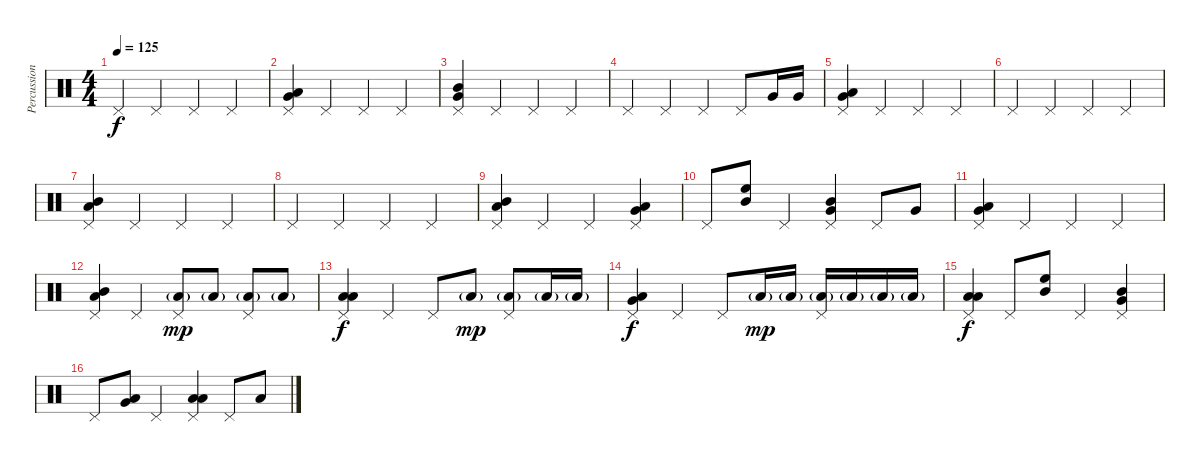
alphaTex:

\track ("Percussion" "Percussion") {instrument percussion}
\staff {score}
\articulation defaults
\ts (4 4)
\tempo 125
\clef neutral
\ks c "Pedal Hi-Hat (hit)".4{dy f} "Pedal Hi-Hat (hit)".4 "Pedal Hi-Hat (hit)".4 "Pedal Hi-Hat (hit)".4
|
("Low Tom (hit)" "Very Low Tom (hit)" "Pedal Hi-Hat (hit)").4 "Pedal Hi-Hat (hit)".4 "Pedal Hi-Hat (hit)".4 "Pedal Hi-Hat (hit)".4 |
("Mid Tom (hit)" "Very Low Tom (hit)" "Pedal Hi-Hat (hit)").4 "Pedal Hi-Hat (hit)".4 "Pedal Hi-Hat (hit)".4 "Pedal Hi-Hat (hit)".4 |
"Pedal Hi-Hat (hit)".4 "Pedal Hi-Hat (hit)".4 "Pedal Hi-Hat (hit)".4 "Pedal Hi-Hat (hit)".8 "Very Low Tom (hit)".16 "Very Low Tom (hit)".16 |
("Low Tom (hit)" "Very Low Tom (hit)" "Pedal Hi-Hat (hit)").4 "Pedal Hi-Hat (hit)".4 "Pedal Hi-Hat (hit)".4 "Pedal Hi-Hat (hit)".4 |
"Pedal Hi-Hat (hit)".4 "Pedal Hi-Hat (hit)".4 "Pedal Hi-Hat (hit)".4 "Pedal Hi-Hat (hit)".4 |
("Mid Tom (hit)" "Low Tom (hit)" "Pedal Hi-Hat (hit)").4 "Pedal Hi-Hat (hit)".4 "Pedal Hi-Hat (hit)".4 "Pedal Hi-Hat (hit)".4 |
"Pedal Hi-Hat (hit)".4 "Pedal Hi-Hat (hit)".4 "Pedal Hi-Hat (hit)".4 "Pedal Hi-Hat (hit)".4 |
("Mid Tom (hit)" "Low Tom (hit)" "Pedal Hi-Hat (hit)").4 "Pedal Hi-Hat (hit)".4 "Pedal Hi-Hat (hit)".4 ("Low Tom (hit)" "Very Low Tom (hit)" "Pedal Hi-Hat (hit)").4 |
"Pedal Hi-Hat (hit)".8 ("High Floor Tom (hit)" "Mid Tom (hit)").8 "Pedal Hi-Hat (hit)".4 ("Mid Tom (hit)" "Very Low Tom (hit)" "Pedal Hi-Hat (hit)").4 "Pedal Hi-Hat (hit)".8 "Very Low Tom (hit)".8 |
("Low Tom (hit)" "Very Low Tom (hit)" "Pedal Hi-Hat (hit)").4 "Pedal Hi-Hat (hit)".4 "Pedal Hi-Hat (hit)".4 "Pedal Hi-Hat (hit)".4 |
("Mid Tom (hit)" "Low Tom (hit)" "Pedal Hi-Hat (hit)").4 "Pedal Hi-Hat (hit)".4 ("Low Floor Tom (hit)"{g} "Pedal Hi-Hat (hit)").8{dy mp} "Low Floor Tom (hit)"{g}.8 ("Low Floor Tom (hit)"{g} "Pedal Hi-Hat (hit)").8 "Low Floor Tom (hit)"{g}.8 |
("Low Tom (hit)" "Low Floor Tom (hit)" "Pedal Hi-Hat (hit)").4{dy f} "Pedal Hi-Hat (hit)".4 "Pedal Hi-Hat (hit)".8 "Low Floor Tom (hit)"{g}.8{dy mp} ("Low Floor Tom (hit)"{g} "Pedal Hi-Hat (hit)").8 "Low Floor Tom (hit)"{g}.16 "Low Floor Tom (hit)"{g}.16 |
("Low Tom (hit)" "Very Low Tom (hit)" "Pedal Hi-Hat (hit)").4{dy f} "Pedal Hi-Hat (hit)".4 "Pedal Hi-Hat (hit)".8 "Low Floor Tom (hit)"{g}.16{dy mp} "Low Floor Tom (hit)"{g}.16 ("Low Floor Tom (hit)"{g} "Pedal Hi-Hat (hit)").16 "Low Floor Tom (hit)"{g}.16 "Low Floor Tom (hit)"{g}.16 "Low Floor Tom (hit)"{g}.16 |
("Low Tom (hit)" "Low Floor Tom (hit)" "Pedal Hi-Hat (hit)").4{dy f} "Pedal Hi-Hat (hit)".8 ("High Floor Tom (hit)" "Mid Tom (hit)").8 "Pedal Hi-Hat (hit)".4 ("Mid Tom (hit)" "Very Low Tom (hit)" "Pedal Hi-Hat (hit)").4 |
"Pedal Hi-Hat (hit)".8 ("Low Tom (hit)" "Very Low Tom (hit)").8 "Pedal Hi-Hat (hit)".4 ("Low Tom (hit)" "Low Floor Tom (hit)" "Pedal Hi-Hat (hit)").4 "Pedal Hi-Hat (hit)".8 "Low Floor Tom (hit)".8
